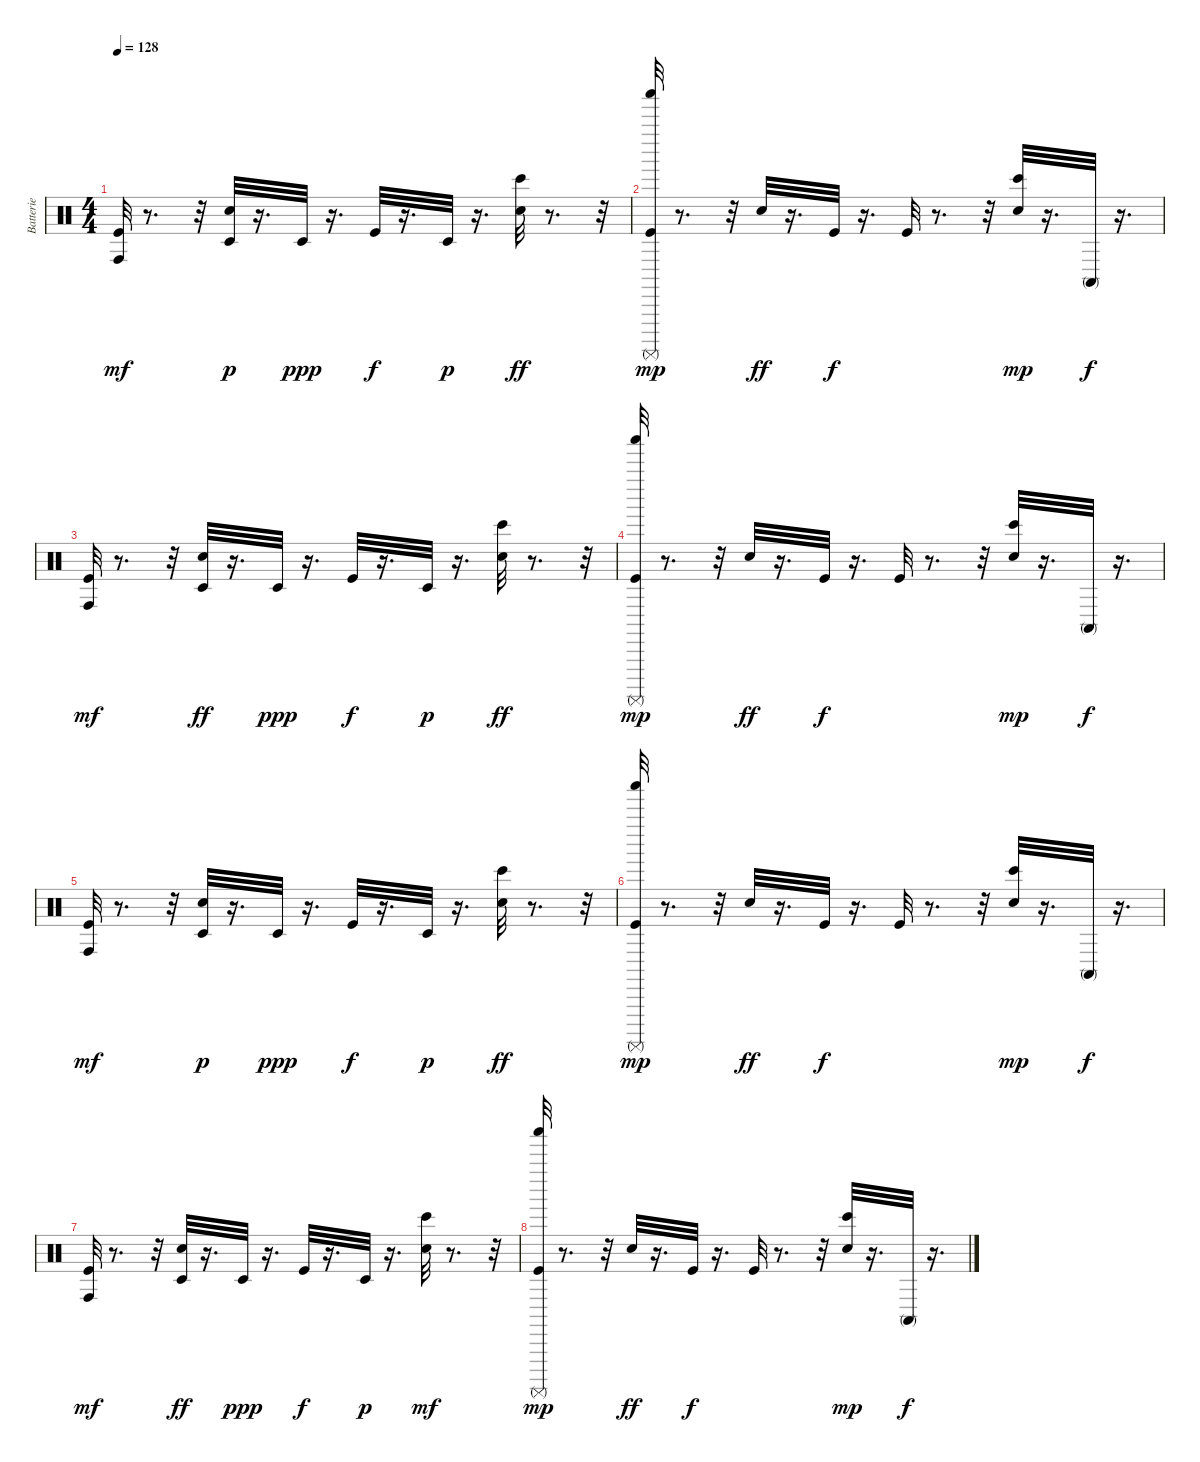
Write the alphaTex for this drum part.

\track ("Batterie" "Batterie") {instrument percussion}
\staff {score}
\articulation defaults
\ts (4 4)
\tempo 128
\clef neutral
\ks c
("Kick (hit)" "Conga high (hit)").32{dy mf} r.8{d} r.32 ("Electric Snare (hit)" "Timbale low (hit)").32{dy p} r.16{d} "Timbale low (hit)".32{dy ppp} r.16{d} "Kick (hit)".32{dy f} r.16{d} "Timbale low (hit)".32{dy p} r.16{d} ("Bongo High (hit)" "Electric Snare (hit)").32{dy ff} r.8{d} r.32 |
("Shaker (hit)" "Kick (hit)" "Surdo (mute)").32{dy mp} r.8{d} r.32 "Electric Snare (hit)".32{dy ff} r.16{d} "Kick (hit)".32{dy f} r.16{d} "Kick (hit)".32 r.8{d} r.32 ("Electric Snare (hit)" "Bongo High (hit)").32{dy mp} r.16{d} "Conga high (mute)".32{dy f} r.16{d} |
("Kick (hit)" "Conga high (hit)").32{dy mf} r.8{d} r.32 ("Timbale low (hit)" "Electric Snare (hit)").32{dy ff} r.16{d} "Timbale low (hit)".32{dy ppp} r.16{d} "Kick (hit)".32{dy f} r.16{d} "Timbale low (hit)".32{dy p} r.16{d} ("Bongo High (hit)" "Electric Snare (hit)").32{dy ff} r.8{d} r.32 |
("Kick (hit)" "Surdo (mute)" "Shaker (hit)").32{dy mp} r.8{d} r.32 "Electric Snare (hit)".32{dy ff} r.16{d} "Kick (hit)".32{dy f} r.16{d} "Kick (hit)".32 r.8{d} r.32 ("Electric Snare (hit)" "Bongo High (hit)").32{dy mp} r.16{d} "Conga high (mute)".32{dy f} r.16{d} |
("Kick (hit)" "Conga high (hit)").32{dy mf} r.8{d} r.32 ("Electric Snare (hit)" "Timbale low (hit)").32{dy p} r.16{d} "Timbale low (hit)".32{dy ppp} r.16{d} "Kick (hit)".32{dy f} r.16{d} "Timbale low (hit)".32{dy p} r.16{d} ("Bongo High (hit)" "Electric Snare (hit)").32{dy ff} r.8{d} r.32 |
("Kick (hit)" "Shaker (hit)" "Surdo (mute)").32{dy mp} r.8{d} r.32 "Electric Snare (hit)".32{dy ff} r.16{d} "Kick (hit)".32{dy f} r.16{d} "Kick (hit)".32 r.8{d} r.32 ("Electric Snare (hit)" "Bongo High (hit)").32{dy mp} r.16{d} "Conga high (mute)".32{dy f} r.16{d} |
("Conga high (hit)" "Kick (hit)").32{dy mf} r.8{d} r.32 ("Timbale low (hit)" "Electric Snare (hit)").32{dy ff} r.16{d} "Timbale low (hit)".32{dy ppp} r.16{d} "Kick (hit)".32{dy f} r.16{d} "Timbale low (hit)".32{dy p} r.16{d} ("Electric Snare (hit)" "Bongo High (hit)").32{dy mf} r.8{d} r.32 |
("Kick (hit)" "Surdo (mute)" "Shaker (hit)").32{dy mp} r.8{d} r.32 "Electric Snare (hit)".32{dy ff} r.16{d} "Kick (hit)".32{dy f} r.16{d} "Kick (hit)".32 r.8{d} r.32 ("Electric Snare (hit)" "Bongo High (hit)").32{dy mp} r.16{d} "Conga high (mute)".32{dy f} r.16{d}
